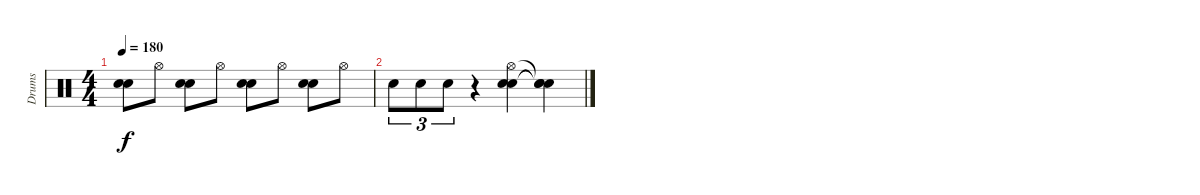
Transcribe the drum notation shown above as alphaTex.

\track ("Drums" "Drums") {instrument percussion}
\staff {score}
\articulation defaults
\ts (4 4)
\tempo 180
\clef neutral
\ks c
("Electric Snare (hit)" "Snare (hit) 2").8{dy f} "Hi-Hat (open)".8 ("Electric Snare (hit)" "Snare (hit) 2").8 "Hi-Hat (open)".8 ("Electric Snare (hit)" "Snare (hit) 2").8 "Hi-Hat (open)".8 ("Electric Snare (hit)" "Snare (hit) 2").8 "Hi-Hat (open)".8 |
"Snare (hit) 2".8{tu (3 2)} "Snare (hit) 2".8{tu (3 2)} "Snare (hit) 2".8{tu (3 2)} r.4 ("Snare (hit) 2" "Electric Snare (hit)" "Hi-Hat (open)").4 ("Snare (hit)"{t} "Snare (hit)"{t} "Snare (hit)"{t}).4
